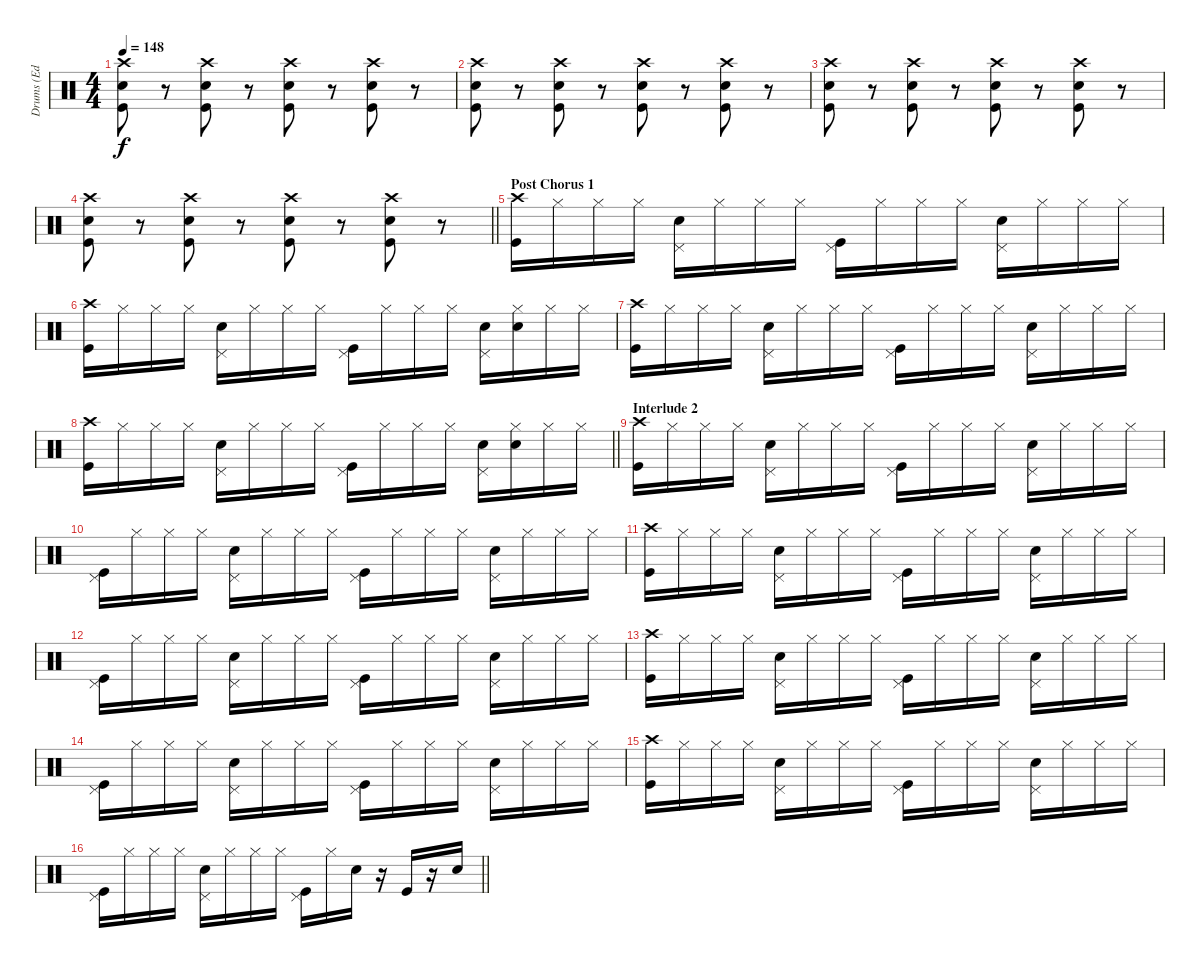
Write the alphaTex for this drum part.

\track ("Drums (Ed Lay)" "Drums (Ed ") {instrument percussion}
\staff {score}
\articulation defaults
\ts (4 4)
\tempo 148
\clef neutral
\ks c
("Crash high (hit)" "Electric Snare (hit)" "Kick (hit)").8{dy f} r.8 ("Crash high (hit)" "Electric Snare (hit)" "Kick (hit)").8 r.8 ("Crash high (hit)" "Electric Snare (hit)" "Kick (hit)").8 r.8 ("Crash high (hit)" "Electric Snare (hit)" "Kick (hit)").8 r.8 |
("Crash high (hit)" "Electric Snare (hit)" "Kick (hit)").8 r.8 ("Crash high (hit)" "Electric Snare (hit)" "Kick (hit)").8 r.8 ("Crash high (hit)" "Electric Snare (hit)" "Kick (hit)").8 r.8 ("Crash high (hit)" "Electric Snare (hit)" "Kick (hit)").8 r.8 |
("Crash high (hit)" "Electric Snare (hit)" "Kick (hit)").8 r.8 ("Crash high (hit)" "Electric Snare (hit)" "Kick (hit)").8 r.8 ("Crash high (hit)" "Electric Snare (hit)" "Kick (hit)").8 r.8 ("Crash high (hit)" "Electric Snare (hit)" "Kick (hit)").8 r.8 |
\barLineRight lightlight
("Crash high (hit)" "Electric Snare (hit)" "Kick (hit)").8 r.8 ("Crash high (hit)" "Electric Snare (hit)" "Kick (hit)").8 r.8 ("Crash high (hit)" "Electric Snare (hit)" "Kick (hit)").8 r.8 ("Crash high (hit)" "Electric Snare (hit)" "Kick (hit)").8 r.8 |
\section ("" "Post Chorus 1")
("Crash high (hit)" "Kick (hit)").16 "Hi-Hat (closed)".16 "Hi-Hat (closed)".16 "Hi-Hat (closed)".16 ("Pedal Hi-Hat (hit)" "Electric Snare (hit)").16 "Hi-Hat (closed)".16 "Hi-Hat (closed)".16 "Hi-Hat (closed)".16 ("Pedal Hi-Hat (hit)" "Kick (hit)").16 "Hi-Hat (closed)".16 "Hi-Hat (closed)".16 "Hi-Hat (closed)".16 ("Pedal Hi-Hat (hit)" "Electric Snare (hit)").16 "Hi-Hat (closed)".16 "Hi-Hat (closed)".16 "Hi-Hat (closed)".16 |
("Crash high (hit)" "Kick (hit)").16 "Hi-Hat (closed)".16 "Hi-Hat (closed)".16 "Hi-Hat (closed)".16 ("Pedal Hi-Hat (hit)" "Electric Snare (hit)").16 "Hi-Hat (closed)".16 "Hi-Hat (closed)".16 "Hi-Hat (closed)".16 ("Pedal Hi-Hat (hit)" "Kick (hit)").16 "Hi-Hat (closed)".16 "Hi-Hat (closed)".16 "Hi-Hat (closed)".16 ("Pedal Hi-Hat (hit)" "Electric Snare (hit)").16 ("Hi-Hat (closed)" "Electric Snare (hit)").16 "Hi-Hat (closed)".16 "Hi-Hat (closed)".16 |
("Crash high (hit)" "Kick (hit)").16 "Hi-Hat (closed)".16 "Hi-Hat (closed)".16 "Hi-Hat (closed)".16 ("Pedal Hi-Hat (hit)" "Electric Snare (hit)").16 "Hi-Hat (closed)".16 "Hi-Hat (closed)".16 "Hi-Hat (closed)".16 ("Pedal Hi-Hat (hit)" "Kick (hit)").16 "Hi-Hat (closed)".16 "Hi-Hat (closed)".16 "Hi-Hat (closed)".16 ("Pedal Hi-Hat (hit)" "Electric Snare (hit)").16 "Hi-Hat (closed)".16 "Hi-Hat (closed)".16 "Hi-Hat (closed)".16 |
\barLineRight lightlight
("Crash high (hit)" "Kick (hit)").16 "Hi-Hat (closed)".16 "Hi-Hat (closed)".16 "Hi-Hat (closed)".16 ("Pedal Hi-Hat (hit)" "Electric Snare (hit)").16 "Hi-Hat (closed)".16 "Hi-Hat (closed)".16 "Hi-Hat (closed)".16 ("Pedal Hi-Hat (hit)" "Kick (hit)").16 "Hi-Hat (closed)".16 "Hi-Hat (closed)".16 "Hi-Hat (closed)".16 ("Pedal Hi-Hat (hit)" "Electric Snare (hit)").16 ("Hi-Hat (closed)" "Electric Snare (hit)").16 "Hi-Hat (closed)".16 "Hi-Hat (closed)".16 |
\section ("" "Interlude 2")
("Crash high (hit)" "Kick (hit)").16 "Hi-Hat (closed)".16 "Hi-Hat (closed)".16 "Hi-Hat (closed)".16 ("Pedal Hi-Hat (hit)" "Electric Snare (hit)").16 "Hi-Hat (closed)".16 "Hi-Hat (closed)".16 "Hi-Hat (closed)".16 ("Pedal Hi-Hat (hit)" "Kick (hit)").16 "Hi-Hat (closed)".16 "Hi-Hat (closed)".16 "Hi-Hat (closed)".16 ("Pedal Hi-Hat (hit)" "Electric Snare (hit)").16 "Hi-Hat (closed)".16 "Hi-Hat (closed)".16 "Hi-Hat (closed)".16 |
("Pedal Hi-Hat (hit)" "Kick (hit)").16 "Hi-Hat (closed)".16 "Hi-Hat (closed)".16 "Hi-Hat (closed)".16 ("Pedal Hi-Hat (hit)" "Electric Snare (hit)").16 "Hi-Hat (closed)".16 "Hi-Hat (closed)".16 "Hi-Hat (closed)".16 ("Pedal Hi-Hat (hit)" "Kick (hit)").16 "Hi-Hat (closed)".16 "Hi-Hat (closed)".16 "Hi-Hat (closed)".16 ("Pedal Hi-Hat (hit)" "Electric Snare (hit)").16 "Hi-Hat (closed)".16 "Hi-Hat (closed)".16 "Hi-Hat (closed)".16 |
("Crash high (hit)" "Kick (hit)").16 "Hi-Hat (closed)".16 "Hi-Hat (closed)".16 "Hi-Hat (closed)".16 ("Pedal Hi-Hat (hit)" "Electric Snare (hit)").16 "Hi-Hat (closed)".16 "Hi-Hat (closed)".16 "Hi-Hat (closed)".16 ("Pedal Hi-Hat (hit)" "Kick (hit)").16 "Hi-Hat (closed)".16 "Hi-Hat (closed)".16 "Hi-Hat (closed)".16 ("Pedal Hi-Hat (hit)" "Electric Snare (hit)").16 "Hi-Hat (closed)".16 "Hi-Hat (closed)".16 "Hi-Hat (closed)".16 |
("Pedal Hi-Hat (hit)" "Kick (hit)").16 "Hi-Hat (closed)".16 "Hi-Hat (closed)".16 "Hi-Hat (closed)".16 ("Pedal Hi-Hat (hit)" "Electric Snare (hit)").16 "Hi-Hat (closed)".16 "Hi-Hat (closed)".16 "Hi-Hat (closed)".16 ("Pedal Hi-Hat (hit)" "Kick (hit)").16 "Hi-Hat (closed)".16 "Hi-Hat (closed)".16 "Hi-Hat (closed)".16 ("Pedal Hi-Hat (hit)" "Electric Snare (hit)").16 "Hi-Hat (closed)".16 "Hi-Hat (closed)".16 "Hi-Hat (closed)".16 |
("Crash high (hit)" "Kick (hit)").16 "Hi-Hat (closed)".16 "Hi-Hat (closed)".16 "Hi-Hat (closed)".16 ("Pedal Hi-Hat (hit)" "Electric Snare (hit)").16 "Hi-Hat (closed)".16 "Hi-Hat (closed)".16 "Hi-Hat (closed)".16 ("Pedal Hi-Hat (hit)" "Kick (hit)").16 "Hi-Hat (closed)".16 "Hi-Hat (closed)".16 "Hi-Hat (closed)".16 ("Pedal Hi-Hat (hit)" "Electric Snare (hit)").16 "Hi-Hat (closed)".16 "Hi-Hat (closed)".16 "Hi-Hat (closed)".16 |
("Pedal Hi-Hat (hit)" "Kick (hit)").16 "Hi-Hat (closed)".16 "Hi-Hat (closed)".16 "Hi-Hat (closed)".16 ("Pedal Hi-Hat (hit)" "Electric Snare (hit)").16 "Hi-Hat (closed)".16 "Hi-Hat (closed)".16 "Hi-Hat (closed)".16 ("Pedal Hi-Hat (hit)" "Kick (hit)").16 "Hi-Hat (closed)".16 "Hi-Hat (closed)".16 "Hi-Hat (closed)".16 ("Pedal Hi-Hat (hit)" "Electric Snare (hit)").16 "Hi-Hat (closed)".16 "Hi-Hat (closed)".16 "Hi-Hat (closed)".16 |
("Crash high (hit)" "Kick (hit)").16 "Hi-Hat (closed)".16 "Hi-Hat (closed)".16 "Hi-Hat (closed)".16 ("Pedal Hi-Hat (hit)" "Electric Snare (hit)").16 "Hi-Hat (closed)".16 "Hi-Hat (closed)".16 "Hi-Hat (closed)".16 ("Pedal Hi-Hat (hit)" "Kick (hit)").16 "Hi-Hat (closed)".16 "Hi-Hat (closed)".16 "Hi-Hat (closed)".16 ("Pedal Hi-Hat (hit)" "Electric Snare (hit)").16 "Hi-Hat (closed)".16 "Hi-Hat (closed)".16 "Hi-Hat (closed)".16 |
\barLineRight lightlight
("Pedal Hi-Hat (hit)" "Kick (hit)").16 "Hi-Hat (closed)".16 "Hi-Hat (closed)".16 "Hi-Hat (closed)".16 ("Pedal Hi-Hat (hit)" "Electric Snare (hit)").16 "Hi-Hat (closed)".16 "Hi-Hat (closed)".16 "Hi-Hat (closed)".16 ("Pedal Hi-Hat (hit)" "Kick (hit)").16 "Hi-Hat (closed)".16 "Electric Snare (hit)".16 r.16 "Kick (hit)".16 r.16 "Electric Snare (hit)".16
